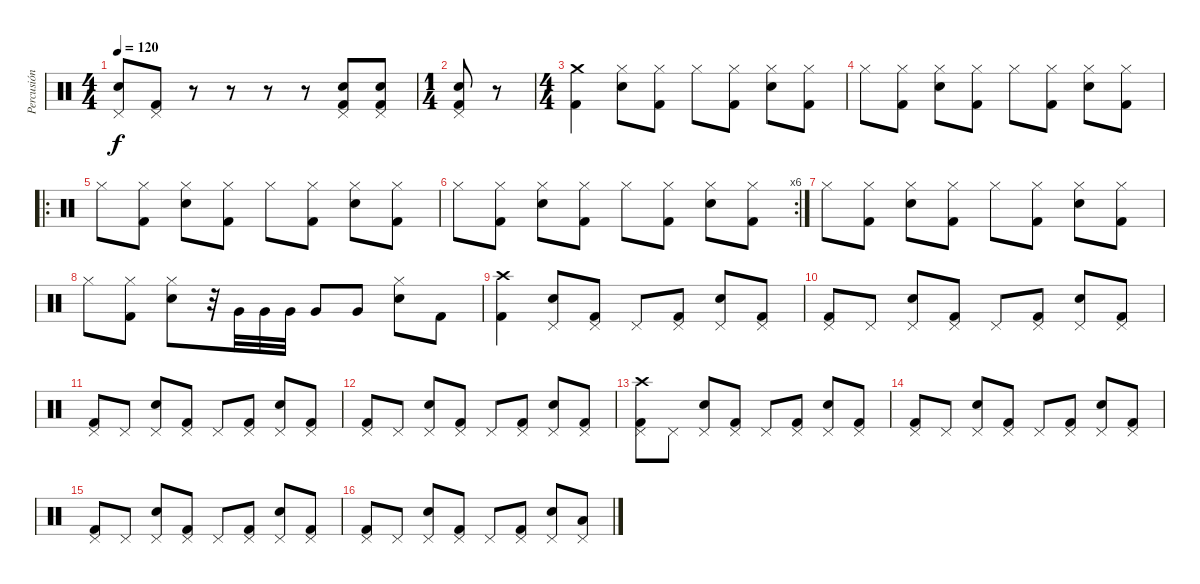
\track ("Percusión" "Percusión") {instrument percussion}
\staff {score}
\articulation defaults
\ts (4 4)
\tempo 120
\clef neutral
\ks c
("Pedal Hi-Hat (hit)" "Electric Snare (hit)").8{dy f} ("Pedal Hi-Hat (hit)" "Kick (hit) 2").8 r.8 r.8 r.8 r.8 ("Pedal Hi-Hat (hit)" "Electric Snare (hit)" "Kick (hit) 2").8 ("Pedal Hi-Hat (hit)" "Electric Snare (hit)" "Kick (hit) 2").8 |
\ts (1 4)
("Pedal Hi-Hat (hit)" "Electric Snare (hit)" "Kick (hit) 2").8 r.8 |
\ts (4 4)
("Crash medium (hit)" "Kick (hit) 2").4 ("Hi-Hat (closed)" "Electric Snare (hit)").8 ("Hi-Hat (closed)" "Kick (hit) 2").8 "Hi-Hat (closed)".8 ("Hi-Hat (closed)" "Kick (hit) 2").8 ("Hi-Hat (closed)" "Electric Snare (hit)").8 ("Hi-Hat (closed)" "Kick (hit) 2").8 |
"Hi-Hat (closed)".8 ("Hi-Hat (closed)" "Kick (hit) 2").8 ("Hi-Hat (closed)" "Electric Snare (hit)").8 ("Hi-Hat (closed)" "Kick (hit) 2").8 "Hi-Hat (closed)".8 ("Hi-Hat (closed)" "Kick (hit) 2").8 ("Hi-Hat (closed)" "Electric Snare (hit)").8 ("Hi-Hat (closed)" "Kick (hit) 2").8 |
\ro "Hi-Hat (closed)".8
("Hi-Hat (closed)" "Kick (hit) 2").8 ("Hi-Hat (closed)" "Electric Snare (hit)").8 ("Hi-Hat (closed)" "Kick (hit) 2").8 "Hi-Hat (closed)".8 ("Hi-Hat (closed)" "Kick (hit) 2").8 ("Hi-Hat (closed)" "Electric Snare (hit)").8 ("Hi-Hat (closed)" "Kick (hit) 2").8 |
\rc 6 "Hi-Hat (closed)".8
("Hi-Hat (closed)" "Kick (hit) 2").8 ("Hi-Hat (closed)" "Electric Snare (hit)").8 ("Hi-Hat (closed)" "Kick (hit) 2").8 "Hi-Hat (closed)".8 ("Hi-Hat (closed)" "Kick (hit) 2").8 ("Hi-Hat (closed)" "Electric Snare (hit)").8 ("Hi-Hat (closed)" "Kick (hit) 2").8 |
"Hi-Hat (closed)".8 ("Hi-Hat (closed)" "Kick (hit) 2").8 ("Hi-Hat (closed)" "Electric Snare (hit)").8 ("Hi-Hat (closed)" "Kick (hit) 2").8 "Hi-Hat (closed)".8 ("Hi-Hat (closed)" "Kick (hit) 2").8 ("Hi-Hat (closed)" "Electric Snare (hit)").8 ("Hi-Hat (closed)" "Kick (hit) 2").8 |
"Hi-Hat (closed)".8 ("Hi-Hat (closed)" "Kick (hit) 2").8 ("Hi-Hat (closed)" "Electric Snare (hit)").8 r.32 "Very Low Tom (hit)".32 "Very Low Tom (hit)".32 "Very Low Tom (hit)".32 "Very Low Tom (hit)".8 "Very Low Tom (hit)".8 ("Hi-Hat (closed)" "Electric Snare (hit)").8 "Kick (hit) 2".8 |
("Crash high (hit)" "Kick (hit) 2").4 ("Pedal Hi-Hat (hit)" "Electric Snare (hit)").8 ("Pedal Hi-Hat (hit)" "Kick (hit) 2").8 "Pedal Hi-Hat (hit)".8 ("Pedal Hi-Hat (hit)" "Kick (hit) 2").8 ("Pedal Hi-Hat (hit)" "Electric Snare (hit)").8 ("Pedal Hi-Hat (hit)" "Kick (hit) 2").8 |
("Pedal Hi-Hat (hit)" "Kick (hit) 2").8 "Pedal Hi-Hat (hit)".8 ("Pedal Hi-Hat (hit)" "Electric Snare (hit)").8 ("Pedal Hi-Hat (hit)" "Kick (hit) 2").8 "Pedal Hi-Hat (hit)".8 ("Pedal Hi-Hat (hit)" "Kick (hit) 2").8 ("Pedal Hi-Hat (hit)" "Electric Snare (hit)").8 ("Pedal Hi-Hat (hit)" "Kick (hit) 2").8 |
("Pedal Hi-Hat (hit)" "Kick (hit) 2").8 "Pedal Hi-Hat (hit)".8 ("Pedal Hi-Hat (hit)" "Electric Snare (hit)").8 ("Pedal Hi-Hat (hit)" "Kick (hit) 2").8 "Pedal Hi-Hat (hit)".8 ("Pedal Hi-Hat (hit)" "Kick (hit) 2").8 ("Pedal Hi-Hat (hit)" "Electric Snare (hit)").8 ("Pedal Hi-Hat (hit)" "Kick (hit) 2").8 |
("Pedal Hi-Hat (hit)" "Kick (hit) 2").8 "Pedal Hi-Hat (hit)".8 ("Pedal Hi-Hat (hit)" "Electric Snare (hit)").8 ("Pedal Hi-Hat (hit)" "Kick (hit) 2").8 "Pedal Hi-Hat (hit)".8 ("Pedal Hi-Hat (hit)" "Kick (hit) 2").8 ("Pedal Hi-Hat (hit)" "Electric Snare (hit)").8 ("Pedal Hi-Hat (hit)" "Kick (hit) 2").8 |
("Crash high (hit)" "Pedal Hi-Hat (hit)" "Kick (hit) 2").8 "Pedal Hi-Hat (hit)".8 ("Pedal Hi-Hat (hit)" "Electric Snare (hit)").8 ("Pedal Hi-Hat (hit)" "Kick (hit) 2").8 "Pedal Hi-Hat (hit)".8 ("Pedal Hi-Hat (hit)" "Kick (hit) 2").8 ("Pedal Hi-Hat (hit)" "Electric Snare (hit)").8 ("Pedal Hi-Hat (hit)" "Kick (hit) 2").8 |
("Pedal Hi-Hat (hit)" "Kick (hit) 2").8 "Pedal Hi-Hat (hit)".8 ("Pedal Hi-Hat (hit)" "Electric Snare (hit)").8 ("Pedal Hi-Hat (hit)" "Kick (hit) 2").8 "Pedal Hi-Hat (hit)".8 ("Pedal Hi-Hat (hit)" "Kick (hit) 2").8 ("Pedal Hi-Hat (hit)" "Electric Snare (hit)").8 ("Pedal Hi-Hat (hit)" "Kick (hit) 2").8 |
("Pedal Hi-Hat (hit)" "Kick (hit) 2").8 "Pedal Hi-Hat (hit)".8 ("Pedal Hi-Hat (hit)" "Electric Snare (hit)").8 ("Pedal Hi-Hat (hit)" "Kick (hit) 2").8 "Pedal Hi-Hat (hit)".8 ("Pedal Hi-Hat (hit)" "Kick (hit) 2").8 ("Pedal Hi-Hat (hit)" "Electric Snare (hit)").8 ("Pedal Hi-Hat (hit)" "Kick (hit) 2").8 |
("Pedal Hi-Hat (hit)" "Kick (hit) 2").8 "Pedal Hi-Hat (hit)".8 ("Pedal Hi-Hat (hit)" "Electric Snare (hit)").8 ("Pedal Hi-Hat (hit)" "Kick (hit) 2").8 "Pedal Hi-Hat (hit)".8 ("Pedal Hi-Hat (hit)" "Kick (hit) 2").8 ("Pedal Hi-Hat (hit)" "Electric Snare (hit)").8 ("Pedal Hi-Hat (hit)" "Low Tom (hit)").8
